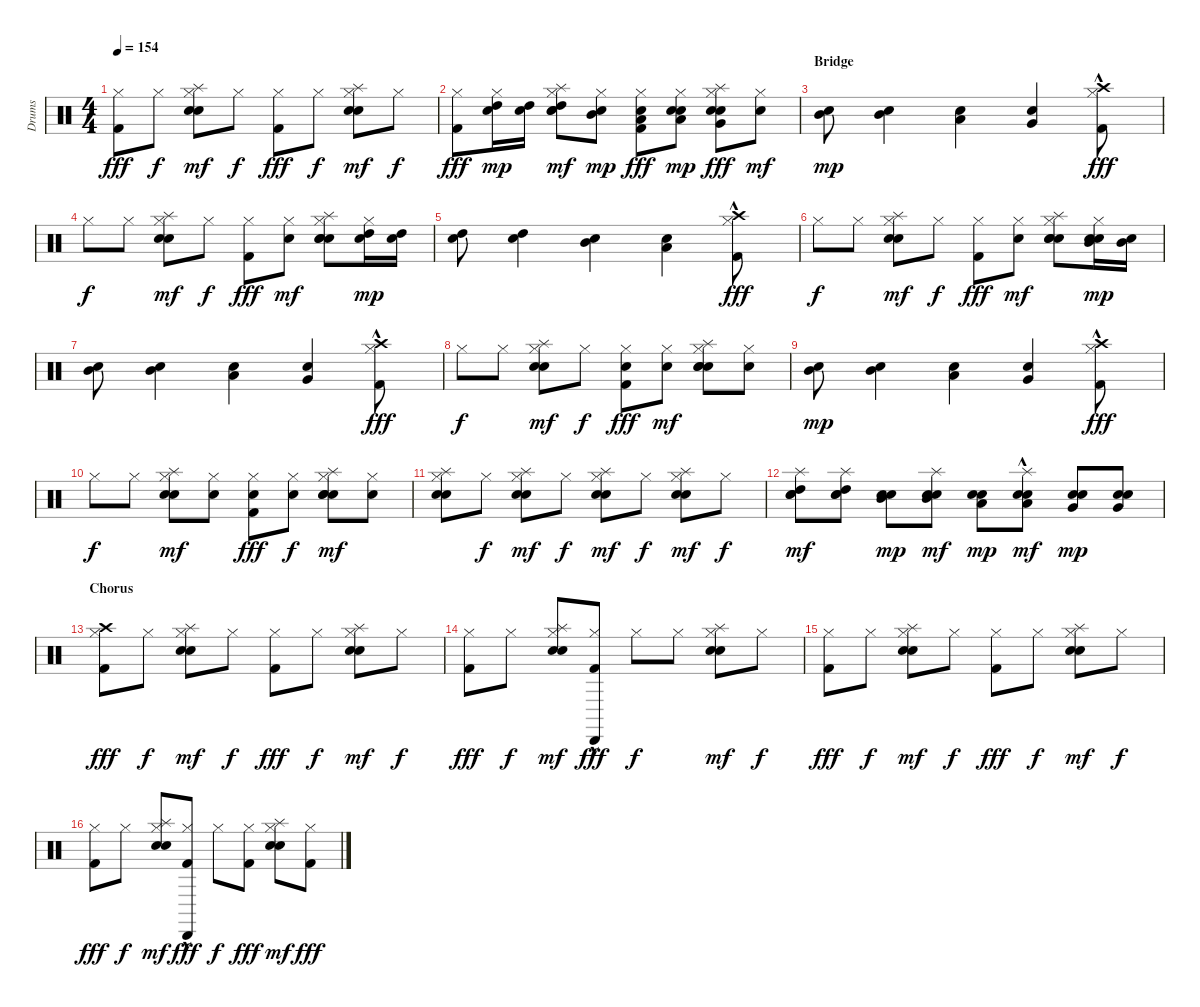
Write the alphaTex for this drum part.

\track ("Drums" "Drums") {instrument percussion}
\staff {score}
\articulation defaults
\ts (4 4)
\tempo 154
\clef neutral
\ks c
("Hi-Hat (closed)" "Kick (hit) 2").8{dy fff} "Hi-Hat (closed)".8{dy f} ("Splash (hit)" "Hi-Hat (closed)" "Electric Snare (hit)" "Snare (hit) 2").8{dy mf} "Hi-Hat (closed)".8{dy f} ("Hi-Hat (closed)" "Kick (hit) 2").8{dy fff} "Hi-Hat (closed)".8{dy f} ("Splash (hit)" "Hi-Hat (closed)" "Electric Snare (hit)" "Snare (hit) 2").8{dy mf} "Hi-Hat (closed)".8{dy f} |
("Hi-Hat (closed)" "Kick (hit) 2").8{dy fff} ("Hi-Hat (closed)" "High Tom (hit)" "Snare (hit) 2").16{dy mp} ("High Tom (hit)" "Snare (hit) 2").16 ("Splash (hit)" "Hi-Hat (closed)" "High Tom (hit)" "Electric Snare (hit)" "Snare (hit) 2").8{dy mf} ("Hi-Hat (closed)" "Mid Tom (hit)" "Snare (hit) 2").8{dy mp} ("Hi-Hat (closed)" "Low Tom (hit)" "Snare (hit) 2" "Kick (hit) 2").8{dy fff} ("Hi-Hat (closed)" "Hand Clap (hit)" "Low Tom (hit)" "Snare (hit) 2").8{dy mp} ("Hi-Hat (closed)" "Hand Clap (hit)" "Very Low Tom (hit)" "Snare (hit) 2" "Splash (hit)").8{dy fff} ("Hi-Hat (closed)" "Hand Clap (hit)").8{dy mf} |
\section ("" "Bridge")
("Mid Tom (hit)" "Snare (hit) 2").8{dy mp} ("Mid Tom (hit)" "Snare (hit) 2").4 ("Low Tom (hit)" "Snare (hit) 2").4 ("Very Low Tom (hit)" "Snare (hit) 2").4 ("Crash high (hit)" "Hi-Hat (closed)" "Kick (hit) 2"{hac}).8{dy fff} |
"Hi-Hat (closed)".8{dy f} "Hi-Hat (closed)".8 ("Splash (hit)" "Hi-Hat (closed)" "Electric Snare (hit)" "Snare (hit) 2").8{dy mf} "Hi-Hat (closed)".8{dy f} ("Hi-Hat (closed)" "Kick (hit) 2").8{dy fff} ("Hi-Hat (closed)" "Hand Clap (hit)").8{dy mf} ("Splash (hit)" "Hi-Hat (closed)" "Hand Clap (hit)" "Electric Snare (hit)" "Snare (hit) 2").8 ("Hi-Hat (closed)" "High Tom (hit)" "Snare (hit) 2").16{dy mp} ("High Tom (hit)" "Snare (hit) 2").16 |
("High Tom (hit)" "Snare (hit) 2").8 ("High Tom (hit)" "Snare (hit) 2").4 ("Mid Tom (hit)" "Snare (hit) 2").4 ("Low Tom (hit)" "Snare (hit) 2").4 ("Crash high (hit)" "Hi-Hat (closed)" "Kick (hit) 2"{hac}).8{dy fff} |
"Hi-Hat (closed)".8{dy f} "Hi-Hat (closed)".8 ("Splash (hit)" "Hi-Hat (closed)" "Electric Snare (hit)" "Snare (hit) 2").8{dy mf} "Hi-Hat (closed)".8{dy f} ("Hi-Hat (closed)" "Kick (hit) 2").8{dy fff} ("Hi-Hat (closed)" "Hand Clap (hit)").8{dy mf} ("Splash (hit)" "Hi-Hat (closed)" "Hand Clap (hit)" "Electric Snare (hit)" "Snare (hit) 2").8 ("Hi-Hat (closed)" "Hand Clap (hit)" "Mid Tom (hit)" "Snare (hit) 2").16{dy mp} ("Mid Tom (hit)" "Snare (hit) 2").16 |
("Mid Tom (hit)" "Snare (hit) 2").8 ("Mid Tom (hit)" "Snare (hit) 2").4 ("Low Tom (hit)" "Snare (hit) 2").4 ("Very Low Tom (hit)" "Snare (hit) 2").4 ("Crash high (hit)" "Hi-Hat (closed)" "Kick (hit) 2"{hac}).8{dy fff} |
"Hi-Hat (closed)".8{dy f} "Hi-Hat (closed)".8 ("Splash (hit)" "Hi-Hat (closed)" "Electric Snare (hit)" "Snare (hit) 2").8{dy mf} "Hi-Hat (closed)".8{dy f} ("Hi-Hat (closed)" "Hand Clap (hit)" "Kick (hit) 2").8{dy fff} ("Hi-Hat (closed)" "Hand Clap (hit)").8{dy mf} ("Splash (hit)" "Hi-Hat (closed)" "Hand Clap (hit)" "Electric Snare (hit)" "Snare (hit) 2").8 ("Hi-Hat (closed)" "Hand Clap (hit)").8 |
("Mid Tom (hit)" "Snare (hit) 2").8{dy mp} ("Mid Tom (hit)" "Snare (hit) 2").4 ("Low Tom (hit)" "Snare (hit) 2").4 ("Very Low Tom (hit)" "Snare (hit) 2").4 ("Crash high (hit)" "Hi-Hat (closed)" "Kick (hit) 2"{hac}).8{dy fff} |
"Hi-Hat (closed)".8{dy f} "Hi-Hat (closed)".8 ("Splash (hit)" "Hi-Hat (closed)" "Electric Snare (hit)" "Snare (hit) 2").8{dy mf} ("Hi-Hat (closed)" "Hand Clap (hit)").8 ("Hi-Hat (closed)" "Hand Clap (hit)" "Kick (hit) 2").8{dy fff} ("Hand Clap (hit)" "Hi-Hat (closed)").8{dy f} ("Splash (hit)" "Hi-Hat (closed)" "Hand Clap (hit)" "Electric Snare (hit)" "Snare (hit) 2").8{dy mf} ("Hi-Hat (closed)" "Hand Clap (hit)").8 |
("Splash (hit)" "Hi-Hat (closed)" "Electric Snare (hit)" "Snare (hit) 2").8 "Hi-Hat (closed)".8{dy f} ("Splash (hit)" "Hi-Hat (closed)" "Electric Snare (hit)" "Snare (hit) 2").8{dy mf} "Hi-Hat (closed)".8{dy f} ("Splash (hit)" "Hi-Hat (closed)" "Electric Snare (hit)" "Snare (hit) 2").8{dy mf} "Hi-Hat (closed)".8{dy f} ("Splash (hit)" "Hi-Hat (closed)" "Electric Snare (hit)" "Snare (hit) 2").8{dy mf} "Hi-Hat (closed)".8{dy f} |
("Splash (hit)" "Hand Clap (hit)" "High Tom (hit)" "Snare (hit) 2").8{dy mf} ("Splash (hit)" "Hand Clap (hit)" "High Tom (hit)" "Snare (hit) 2").8 ("Hand Clap (hit)" "Mid Tom (hit)" "Snare (hit) 2").8{dy mp} ("Splash (hit)" "Hand Clap (hit)" "Mid Tom (hit)" "Snare (hit) 2").8{dy mf} ("Hand Clap (hit)" "Low Tom (hit)" "Snare (hit) 2").8{dy mp} ("Splash (hit)"{hac} "Hand Clap (hit)" "Low Tom (hit)" "Snare (hit) 2").8{dy mf} ("Hand Clap (hit)" "Very Low Tom (hit)" "Snare (hit) 2").8{dy mp} ("Hand Clap (hit)" "Very Low Tom (hit)" "Snare (hit) 2").8 |
\section ("" "Chorus")
("Crash high (hit)" "Hi-Hat (closed)" "Kick (hit) 2").8{dy fff} "Hi-Hat (closed)".8{dy f} ("Splash (hit)" "Hi-Hat (closed)" "Electric Snare (hit)" "Snare (hit) 2").8{dy mf} "Hi-Hat (closed)".8{dy f} ("Hi-Hat (closed)" "Kick (hit) 2").8{dy fff} "Hi-Hat (closed)".8{dy f} ("Splash (hit)" "Hi-Hat (closed)" "Electric Snare (hit)" "Snare (hit) 2").8{dy mf} "Hi-Hat (closed)".8{dy f} |
("Hi-Hat (closed)" "Kick (hit) 2").8{dy fff} "Hi-Hat (closed)".8{dy f} ("Splash (hit)" "Hi-Hat (closed)" "Electric Snare (hit)" "Snare (hit) 2").8{dy mf} ("Hi-Hat (closed)" "Cabasa (hit)"{hac} "Kick (hit) 2"{hac}).8{dy fff} "Hi-Hat (closed)".8{dy f} "Hi-Hat (closed)".8 ("Splash (hit)" "Hi-Hat (closed)" "Electric Snare (hit)" "Snare (hit) 2").8{dy mf} "Hi-Hat (closed)".8{dy f} |
("Hi-Hat (closed)" "Kick (hit) 2").8{dy fff} "Hi-Hat (closed)".8{dy f} ("Splash (hit)" "Hi-Hat (closed)" "Electric Snare (hit)" "Snare (hit) 2").8{dy mf} "Hi-Hat (closed)".8{dy f} ("Hi-Hat (closed)" "Kick (hit) 2").8{dy fff} "Hi-Hat (closed)".8{dy f} ("Splash (hit)" "Hi-Hat (closed)" "Electric Snare (hit)" "Snare (hit) 2").8{dy mf} "Hi-Hat (closed)".8{dy f} |
("Hi-Hat (closed)" "Kick (hit) 2").8{dy fff} "Hi-Hat (closed)".8{dy f} ("Splash (hit)" "Hi-Hat (closed)" "Electric Snare (hit)" "Snare (hit) 2").8{dy mf} ("Hi-Hat (closed)" "Cabasa (hit)"{hac} "Kick (hit) 2").8{dy fff} "Hi-Hat (closed)".8{dy f} ("Hi-Hat (closed)" "Kick (hit) 2").8{dy fff} ("Splash (hit)" "Hi-Hat (closed)" "Electric Snare (hit)" "Snare (hit) 2").8{dy mf} ("Hi-Hat (closed)" "Kick (hit) 2").8{dy fff}
